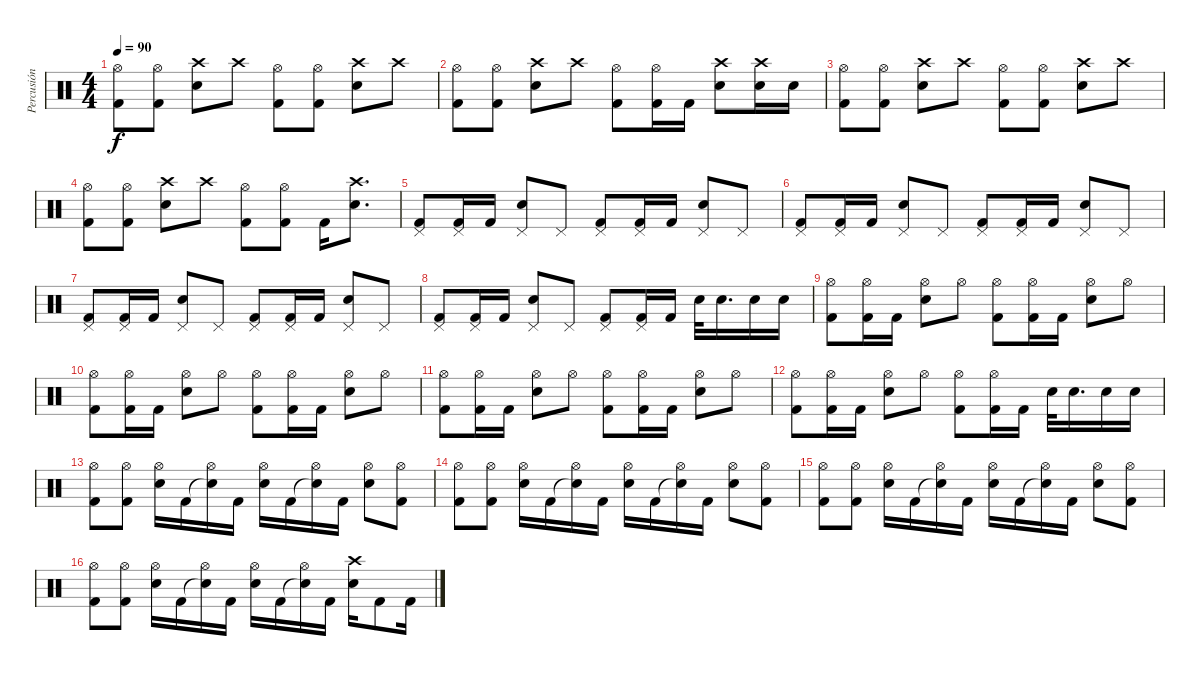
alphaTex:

\track ("Percusión" "Percusión") {instrument percussion}
\staff
\articulation defaults
\ts (4 4)
\tempo 90
\clef neutral
\ks c
("Kick (hit) 2" "Hi-Hat (open)").8{dy f} ("Kick (hit) 2" "Hi-Hat (open)").8 ("Electric Snare (hit)" "Crash high (hit)").8 "Crash high (hit)".8 ("Kick (hit) 2" "Hi-Hat (open)").8 ("Kick (hit) 2" "Hi-Hat (open)").8 ("Electric Snare (hit)" "Crash high (hit)").8 "Crash high (hit)".8 |
("Kick (hit) 2" "Hi-Hat (open)").8 ("Kick (hit) 2" "Hi-Hat (open)").8 ("Electric Snare (hit)" "Crash high (hit)").8 "Crash high (hit)".8 ("Kick (hit) 2" "Hi-Hat (open)").8 ("Kick (hit) 2" "Hi-Hat (open)").16 "Kick (hit) 2".16 ("Electric Snare (hit)" "Crash high (hit)").8 ("Electric Snare (hit)" "Crash high (hit)").16 "Electric Snare (hit)".16 |
("Kick (hit) 2" "Hi-Hat (open)").8 ("Kick (hit) 2" "Hi-Hat (open)").8 ("Electric Snare (hit)" "Crash high (hit)").8 "Crash high (hit)".8 ("Kick (hit) 2" "Hi-Hat (open)").8 ("Kick (hit) 2" "Hi-Hat (open)").8 ("Electric Snare (hit)" "Crash high (hit)").8 "Crash high (hit)".8 |
("Kick (hit) 2" "Hi-Hat (open)").8 ("Kick (hit) 2" "Hi-Hat (open)").8 ("Electric Snare (hit)" "Crash high (hit)").8 "Crash high (hit)".8 ("Kick (hit) 2" "Hi-Hat (open)").8 ("Kick (hit) 2" "Hi-Hat (open)").8 "Kick (hit) 2".16 ("Electric Snare (hit)" "Crash high (hit)").8{d} |
("Kick (hit) 2" "Pedal Hi-Hat (hit)").8 ("Kick (hit) 2" "Pedal Hi-Hat (hit)").16 "Kick (hit) 2".16 ("Electric Snare (hit)" "Pedal Hi-Hat (hit)").8 "Pedal Hi-Hat (hit)".8 ("Kick (hit) 2" "Pedal Hi-Hat (hit)").8 ("Kick (hit) 2" "Pedal Hi-Hat (hit)").16 "Kick (hit) 2".16 ("Electric Snare (hit)" "Pedal Hi-Hat (hit)").8 "Pedal Hi-Hat (hit)".8 |
("Kick (hit) 2" "Pedal Hi-Hat (hit)").8 ("Kick (hit) 2" "Pedal Hi-Hat (hit)").16 "Kick (hit) 2".16 ("Electric Snare (hit)" "Pedal Hi-Hat (hit)").8 "Pedal Hi-Hat (hit)".8 ("Kick (hit) 2" "Pedal Hi-Hat (hit)").8 ("Kick (hit) 2" "Pedal Hi-Hat (hit)").16 "Kick (hit) 2".16 ("Electric Snare (hit)" "Pedal Hi-Hat (hit)").8 "Pedal Hi-Hat (hit)".8 |
("Kick (hit) 2" "Pedal Hi-Hat (hit)").8 ("Kick (hit) 2" "Pedal Hi-Hat (hit)").16 "Kick (hit) 2".16 ("Electric Snare (hit)" "Pedal Hi-Hat (hit)").8 "Pedal Hi-Hat (hit)".8 ("Kick (hit) 2" "Pedal Hi-Hat (hit)").8 ("Kick (hit) 2" "Pedal Hi-Hat (hit)").16 "Kick (hit) 2".16 ("Electric Snare (hit)" "Pedal Hi-Hat (hit)").8 "Pedal Hi-Hat (hit)".8 |
("Kick (hit) 2" "Pedal Hi-Hat (hit)").8 ("Kick (hit) 2" "Pedal Hi-Hat (hit)").16 "Kick (hit) 2".16 ("Electric Snare (hit)" "Pedal Hi-Hat (hit)").8 "Pedal Hi-Hat (hit)".8 ("Kick (hit) 2" "Pedal Hi-Hat (hit)").8 ("Kick (hit) 2" "Pedal Hi-Hat (hit)").16 "Kick (hit) 2".16 "Electric Snare (hit)".32 "Electric Snare (hit)".16{d} "Electric Snare (hit)".16 "Electric Snare (hit)".16 |
("Kick (hit) 2" "Hi-Hat (open)").8 ("Kick (hit) 2" "Hi-Hat (open)").16 "Kick (hit) 2".16 ("Electric Snare (hit)" "Hi-Hat (open)").8 "Hi-Hat (open)".8 ("Kick (hit) 2" "Hi-Hat (open)").8 ("Kick (hit) 2" "Hi-Hat (open)").16 "Kick (hit) 2".16 ("Electric Snare (hit)" "Hi-Hat (open)").8 "Hi-Hat (open)".8 |
("Kick (hit) 2" "Hi-Hat (open)").8 ("Kick (hit) 2" "Hi-Hat (open)").16 "Kick (hit) 2".16 ("Electric Snare (hit)" "Hi-Hat (open)").8 "Hi-Hat (open)".8 ("Kick (hit) 2" "Hi-Hat (open)").8 ("Kick (hit) 2" "Hi-Hat (open)").16 "Kick (hit) 2".16 ("Electric Snare (hit)" "Hi-Hat (open)").8 "Hi-Hat (open)".8 |
("Kick (hit) 2" "Hi-Hat (open)").8 ("Kick (hit) 2" "Hi-Hat (open)").16 "Kick (hit) 2".16 ("Electric Snare (hit)" "Hi-Hat (open)").8 "Hi-Hat (open)".8 ("Kick (hit) 2" "Hi-Hat (open)").8 ("Kick (hit) 2" "Hi-Hat (open)").16 "Kick (hit) 2".16 ("Electric Snare (hit)" "Hi-Hat (open)").8 "Hi-Hat (open)".8 |
("Kick (hit) 2" "Hi-Hat (open)").8 ("Kick (hit) 2" "Hi-Hat (open)").16 "Kick (hit) 2".16 ("Electric Snare (hit)" "Hi-Hat (open)").8 "Hi-Hat (open)".8 ("Kick (hit) 2" "Hi-Hat (open)").8 ("Kick (hit) 2" "Hi-Hat (open)").16 "Kick (hit) 2".16 "Electric Snare (hit)".32 "Electric Snare (hit)".16{d} "Electric Snare (hit)".16 "Electric Snare (hit)".16 |
("Kick (hit) 2" "Hi-Hat (open)").8 ("Kick (hit) 2" "Hi-Hat (open)").8 ("Electric Snare (hit)" "Hi-Hat (open)").16 "Kick (hit) 2".16 ("Snare (hit)"{t} "Hi-Hat (open)").16 "Kick (hit) 2".16 ("Electric Snare (hit)" "Hi-Hat (open)").16 "Kick (hit) 2".16 ("Snare (hit)"{t} "Hi-Hat (open)").16 "Kick (hit) 2".16 ("Electric Snare (hit)" "Hi-Hat (open)").8 ("Kick (hit) 2" "Hi-Hat (open)").8 |
("Kick (hit) 2" "Hi-Hat (open)").8 ("Kick (hit) 2" "Hi-Hat (open)").8 ("Electric Snare (hit)" "Hi-Hat (open)").16 "Kick (hit) 2".16 ("Snare (hit)"{t} "Hi-Hat (open)").16 "Kick (hit) 2".16 ("Electric Snare (hit)" "Hi-Hat (open)").16 "Kick (hit) 2".16 ("Snare (hit)"{t} "Hi-Hat (open)").16 "Kick (hit) 2".16 ("Electric Snare (hit)" "Hi-Hat (open)").8 ("Kick (hit) 2" "Hi-Hat (open)").8 |
("Kick (hit) 2" "Hi-Hat (open)").8 ("Kick (hit) 2" "Hi-Hat (open)").8 ("Electric Snare (hit)" "Hi-Hat (open)").16 "Kick (hit) 2".16 ("Snare (hit)"{t} "Hi-Hat (open)").16 "Kick (hit) 2".16 ("Electric Snare (hit)" "Hi-Hat (open)").16 "Kick (hit) 2".16 ("Snare (hit)"{t} "Hi-Hat (open)").16 "Kick (hit) 2".16 ("Electric Snare (hit)" "Hi-Hat (open)").8 ("Kick (hit) 2" "Hi-Hat (open)").8 |
("Kick (hit) 2" "Hi-Hat (open)").8 ("Kick (hit) 2" "Hi-Hat (open)").8 ("Electric Snare (hit)" "Hi-Hat (open)").16 "Kick (hit) 2".16 ("Snare (hit)"{t} "Hi-Hat (open)").16 "Kick (hit) 2".16 ("Electric Snare (hit)" "Hi-Hat (open)").16 "Kick (hit) 2".16 ("Snare (hit)"{t} "Hi-Hat (open)").16 "Kick (hit) 2".16 ("Electric Snare (hit)" "Crash high (hit)").16 "Kick (hit) 2".8 "Kick (hit) 2".16
